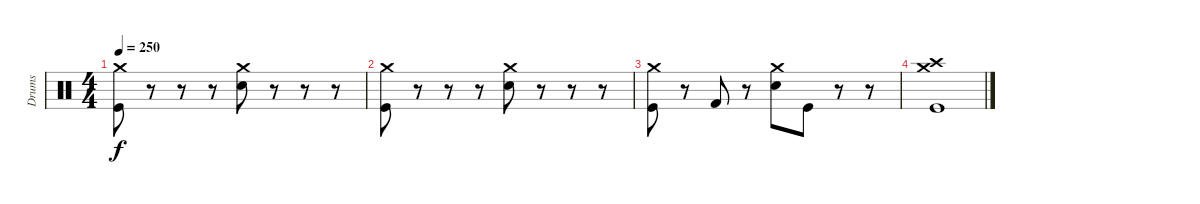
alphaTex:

\track ("Drums" "Drums") {instrument percussion}
\staff {score}
\articulation defaults
\ts (4 4)
\tempo 250
\clef neutral
\ks c
("Crash medium (hit)" "Kick (hit)").8{dy f} r.8 r.8 r.8 ("Crash medium (hit)" "Electric Snare (hit)").8 r.8 r.8 r.8 |
("Crash medium (hit)" "Kick (hit)").8 r.8 r.8 r.8 ("Crash medium (hit)" "Electric Snare (hit)").8 r.8 r.8 r.8 |
("Crash medium (hit)" "Kick (hit)").8 r.8 "Kick (hit) 2".8 r.8 ("Crash medium (hit)" "Electric Snare (hit)").8 "Kick (hit)".8 r.8 r.8 |
("Crash medium (hit)" "Crash high (hit)" "Kick (hit)").1
